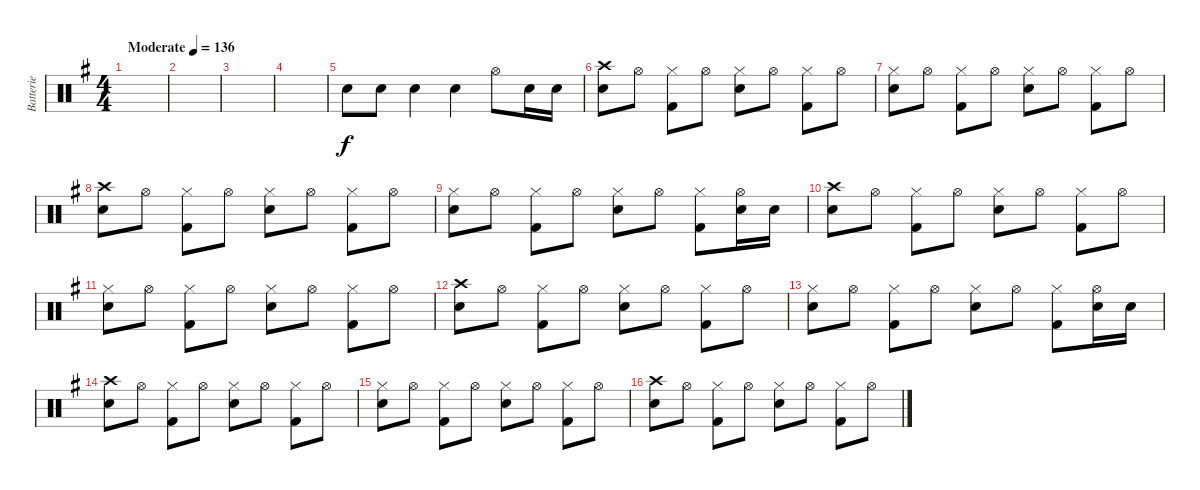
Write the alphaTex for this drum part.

\track ("Batterie" "Batterie") {instrument percussion}
\staff {score}
\articulation defaults
\ts (4 4)
\tempo (136 "Moderate")
\clef neutral
\ks g
|
|
|
|
"Snare (hit) 2".8 "Snare (hit) 2".8 "Snare (hit) 2".4 "Snare (hit) 2".4 "Hi-Hat (open)".8 "Snare (hit) 2".16 "Snare (hit) 2".16 |
("Crash high (hit)" "Snare (hit) 2").8 "Hi-Hat (open)".8 ("Hi-Hat (closed)" "Kick (hit) 2").8 "Hi-Hat (open)".8 ("Hi-Hat (closed)" "Snare (hit) 2").8 "Hi-Hat (open)".8 ("Hi-Hat (closed)" "Kick (hit) 2").8 "Hi-Hat (open)".8 |
("Hi-Hat (closed)" "Snare (hit) 2").8 "Hi-Hat (open)".8 ("Hi-Hat (closed)" "Kick (hit) 2").8 "Hi-Hat (open)".8 ("Hi-Hat (closed)" "Snare (hit) 2").8 "Hi-Hat (open)".8 ("Hi-Hat (closed)" "Kick (hit) 2").8 "Hi-Hat (open)".8 |
("Crash high (hit)" "Snare (hit) 2").8 "Hi-Hat (open)".8 ("Hi-Hat (closed)" "Kick (hit) 2").8 "Hi-Hat (open)".8 ("Hi-Hat (closed)" "Snare (hit) 2").8 "Hi-Hat (open)".8 ("Hi-Hat (closed)" "Kick (hit) 2").8 "Hi-Hat (open)".8 |
("Hi-Hat (closed)" "Snare (hit) 2").8 "Hi-Hat (open)".8 ("Hi-Hat (closed)" "Kick (hit) 2").8 "Hi-Hat (open)".8 ("Hi-Hat (closed)" "Snare (hit) 2").8 "Hi-Hat (open)".8 ("Hi-Hat (closed)" "Kick (hit) 2").8 ("Hi-Hat (open)" "Snare (hit) 2").16 "Snare (hit) 2".16 |
("Crash high (hit)" "Snare (hit) 2").8 "Hi-Hat (open)".8 ("Hi-Hat (closed)" "Kick (hit) 2").8 "Hi-Hat (open)".8 ("Hi-Hat (closed)" "Snare (hit) 2").8 "Hi-Hat (open)".8 ("Hi-Hat (closed)" "Kick (hit) 2").8 "Hi-Hat (open)".8 |
("Hi-Hat (closed)" "Snare (hit) 2").8 "Hi-Hat (open)".8 ("Hi-Hat (closed)" "Kick (hit) 2").8 "Hi-Hat (open)".8 ("Hi-Hat (closed)" "Snare (hit) 2").8 "Hi-Hat (open)".8 ("Hi-Hat (closed)" "Kick (hit) 2").8 "Hi-Hat (open)".8 |
("Crash high (hit)" "Snare (hit) 2").8 "Hi-Hat (open)".8 ("Hi-Hat (closed)" "Kick (hit) 2").8 "Hi-Hat (open)".8 ("Hi-Hat (closed)" "Snare (hit) 2").8 "Hi-Hat (open)".8 ("Hi-Hat (closed)" "Kick (hit) 2").8 "Hi-Hat (open)".8 |
("Hi-Hat (closed)" "Snare (hit) 2").8 "Hi-Hat (open)".8 ("Hi-Hat (closed)" "Kick (hit) 2").8 "Hi-Hat (open)".8 ("Hi-Hat (closed)" "Snare (hit) 2").8 "Hi-Hat (open)".8 ("Hi-Hat (closed)" "Kick (hit) 2").8 ("Hi-Hat (open)" "Snare (hit) 2").16 "Snare (hit) 2".16 |
("Crash high (hit)" "Snare (hit) 2").8 "Hi-Hat (open)".8 ("Hi-Hat (closed)" "Kick (hit) 2").8 "Hi-Hat (open)".8 ("Hi-Hat (closed)" "Snare (hit) 2").8 "Hi-Hat (open)".8 ("Hi-Hat (closed)" "Kick (hit) 2").8 "Hi-Hat (open)".8 |
("Hi-Hat (closed)" "Snare (hit) 2").8 "Hi-Hat (open)".8 ("Hi-Hat (closed)" "Kick (hit) 2").8 "Hi-Hat (open)".8 ("Hi-Hat (closed)" "Snare (hit) 2").8 "Hi-Hat (open)".8 ("Hi-Hat (closed)" "Kick (hit) 2").8 "Hi-Hat (open)".8 |
("Crash high (hit)" "Snare (hit) 2").8 "Hi-Hat (open)".8 ("Hi-Hat (closed)" "Kick (hit) 2").8 "Hi-Hat (open)".8 ("Hi-Hat (closed)" "Snare (hit) 2").8 "Hi-Hat (open)".8 ("Hi-Hat (closed)" "Kick (hit) 2").8 "Hi-Hat (open)".8
